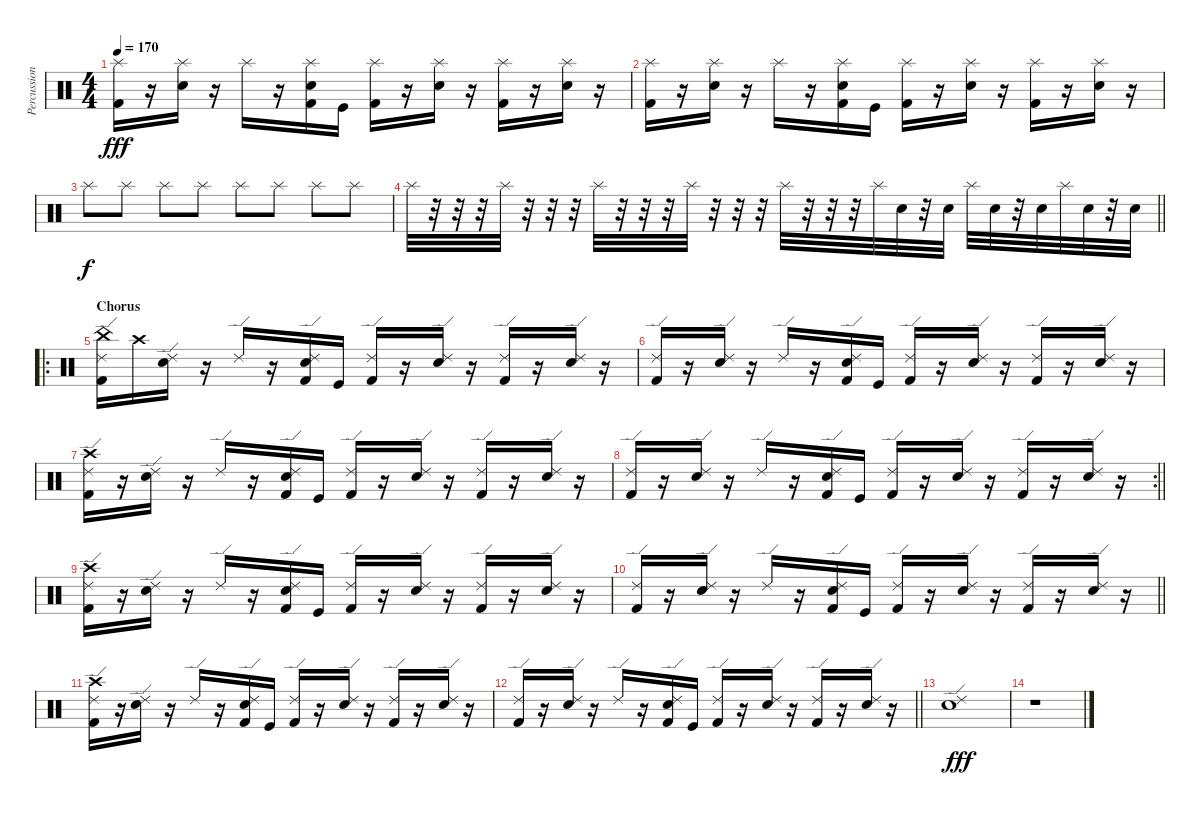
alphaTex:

\track ("Percussion" "Percussion") {instrument percussion}
\staff {score}
\articulation defaults
\ts (4 4)
\tempo 170
\clef neutral
\ks c
("Splash (hit)" "Kick (hit) 2").16{dy fff} r.16 ("Splash (hit)" "Electric Snare (hit)").16 r.16 "Splash (hit)".16 r.16 ("Splash (hit)" "Electric Snare (hit)" "Kick (hit) 2").16 "Kick (hit)".16 ("Splash (hit)" "Kick (hit) 2").16 r.16 ("Splash (hit)" "Electric Snare (hit)").16 r.16 ("Splash (hit)" "Kick (hit) 2").16 r.16 ("Splash (hit)" "Electric Snare (hit)").16 r.16 |
("Splash (hit)" "Kick (hit) 2").16 r.16 ("Splash (hit)" "Electric Snare (hit)").16 r.16 "Splash (hit)".16 r.16 ("Splash (hit)" "Electric Snare (hit)" "Kick (hit) 2").16 "Kick (hit)".16 ("Splash (hit)" "Kick (hit) 2").16 r.16 ("Splash (hit)" "Electric Snare (hit)").16 r.16 ("Splash (hit)" "Kick (hit) 2").16 r.16 ("Splash (hit)" "Electric Snare (hit)").16 r.16 |
"Splash (hit)".8{dy f} "Splash (hit)".8 "Splash (hit)".8 "Splash (hit)".8 "Splash (hit)".8 "Splash (hit)".8 "Splash (hit)".8 "Splash (hit)".8 |
\barLineRight lightlight "Splash (hit)".32
r.32 r.32 r.32 "Splash (hit)".32 r.32 r.32 r.32 "Splash (hit)".32 r.32 r.32 r.32 "Splash (hit)".32 r.32 r.32 r.32 "Splash (hit)".32 r.32 r.32 r.32 "Splash (hit)".32 "Electric Snare (hit)".32 r.32 "Electric Snare (hit)".32 "Splash (hit)".32 "Electric Snare (hit)".32 r.32 "Electric Snare (hit)".32 "Splash (hit)".32 "Electric Snare (hit)".32 r.32 "Electric Snare (hit)".32 |
\ro
\section ("" "Chorus")
("China (hit)" "Ride (edge) 2" "Kick (hit) 2").16 "Crash high (hit)".16 ("Ride (edge) 2" "Electric Snare (hit)").16 r.16 "Ride (edge) 2".16 r.16 ("Ride (edge) 2" "Electric Snare (hit)" "Kick (hit) 2").16 "Kick (hit)".16 ("Ride (edge) 2" "Kick (hit) 2").16 r.16 ("Ride (edge) 2" "Electric Snare (hit)").16 r.16 ("Ride (edge) 2" "Kick (hit) 2").16 r.16 ("Ride (edge) 2" "Electric Snare (hit)").16 r.16 |
("Ride (edge) 2" "Kick (hit) 2").16 r.16 ("Ride (edge) 2" "Electric Snare (hit)").16 r.16 "Ride (edge) 2".16 r.16 ("Ride (edge) 2" "Electric Snare (hit)" "Kick (hit) 2").16 "Kick (hit)".16 ("Ride (edge) 2" "Kick (hit) 2").16 r.16 ("Ride (edge) 2" "Electric Snare (hit)").16 r.16 ("Ride (edge) 2" "Kick (hit) 2").16 r.16 ("Ride (edge) 2" "Electric Snare (hit)").16 r.16 |
("Crash high (hit)" "Ride (edge) 2" "Kick (hit) 2").16 r.16 ("Ride (edge) 2" "Electric Snare (hit)").16 r.16 "Ride (edge) 2".16 r.16 ("Ride (edge) 2" "Electric Snare (hit)" "Kick (hit) 2").16 "Kick (hit)".16 ("Ride (edge) 2" "Kick (hit) 2").16 r.16 ("Ride (edge) 2" "Electric Snare (hit)").16 r.16 ("Ride (edge) 2" "Kick (hit) 2").16 r.16 ("Ride (edge) 2" "Electric Snare (hit)").16 r.16 |
\rc 2
\barLineRight lightlight
("Ride (edge) 2" "Kick (hit) 2").16 r.16 ("Ride (edge) 2" "Electric Snare (hit)").16 r.16 "Ride (edge) 2".16 r.16 ("Ride (edge) 2" "Electric Snare (hit)" "Kick (hit) 2").16 "Kick (hit)".16 ("Ride (edge) 2" "Kick (hit) 2").16 r.16 ("Ride (edge) 2" "Electric Snare (hit)").16 r.16 ("Ride (edge) 2" "Kick (hit) 2").16 r.16 ("Ride (edge) 2" "Electric Snare (hit)").16 r.16 |
("Crash high (hit)" "Ride (edge) 2" "Kick (hit) 2").16 r.16 ("Ride (edge) 2" "Electric Snare (hit)").16 r.16 "Ride (edge) 2".16 r.16 ("Ride (edge) 2" "Electric Snare (hit)" "Kick (hit) 2").16 "Kick (hit)".16 ("Ride (edge) 2" "Kick (hit) 2").16 r.16 ("Ride (edge) 2" "Electric Snare (hit)").16 r.16 ("Ride (edge) 2" "Kick (hit) 2").16 r.16 ("Ride (edge) 2" "Electric Snare (hit)").16 r.16 |
\barLineRight lightlight
("Ride (edge) 2" "Kick (hit) 2").16 r.16 ("Ride (edge) 2" "Electric Snare (hit)").16 r.16 "Ride (edge) 2".16 r.16 ("Ride (edge) 2" "Electric Snare (hit)" "Kick (hit) 2").16 "Kick (hit)".16 ("Ride (edge) 2" "Kick (hit) 2").16 r.16 ("Ride (edge) 2" "Electric Snare (hit)").16 r.16 ("Ride (edge) 2" "Kick (hit) 2").16 r.16 ("Ride (edge) 2" "Electric Snare (hit)").16 r.16 |
("Crash high (hit)" "Ride (edge) 2" "Kick (hit) 2").16 r.16 ("Ride (edge) 2" "Electric Snare (hit)").16 r.16 "Ride (edge) 2".16 r.16 ("Ride (edge) 2" "Electric Snare (hit)" "Kick (hit) 2").16 "Kick (hit)".16 ("Ride (edge) 2" "Kick (hit) 2").16 r.16 ("Ride (edge) 2" "Electric Snare (hit)").16 r.16 ("Ride (edge) 2" "Kick (hit) 2").16 r.16 ("Ride (edge) 2" "Electric Snare (hit)").16 r.16 |
\barLineRight lightlight
("Ride (edge) 2" "Kick (hit) 2").16 r.16 ("Ride (edge) 2" "Electric Snare (hit)").16 r.16 "Ride (edge) 2".16 r.16 ("Ride (edge) 2" "Electric Snare (hit)" "Kick (hit) 2").16 "Kick (hit)".16 ("Ride (edge) 2" "Kick (hit) 2").16 r.16 ("Ride (edge) 2" "Electric Snare (hit)").16 r.16 ("Ride (edge) 2" "Kick (hit) 2").16 r.16 ("Ride (edge) 2" "Electric Snare (hit)").16 r.16 |
("Ride (edge) 2" "Electric Snare (hit)").1{dy fff} |
r.1
